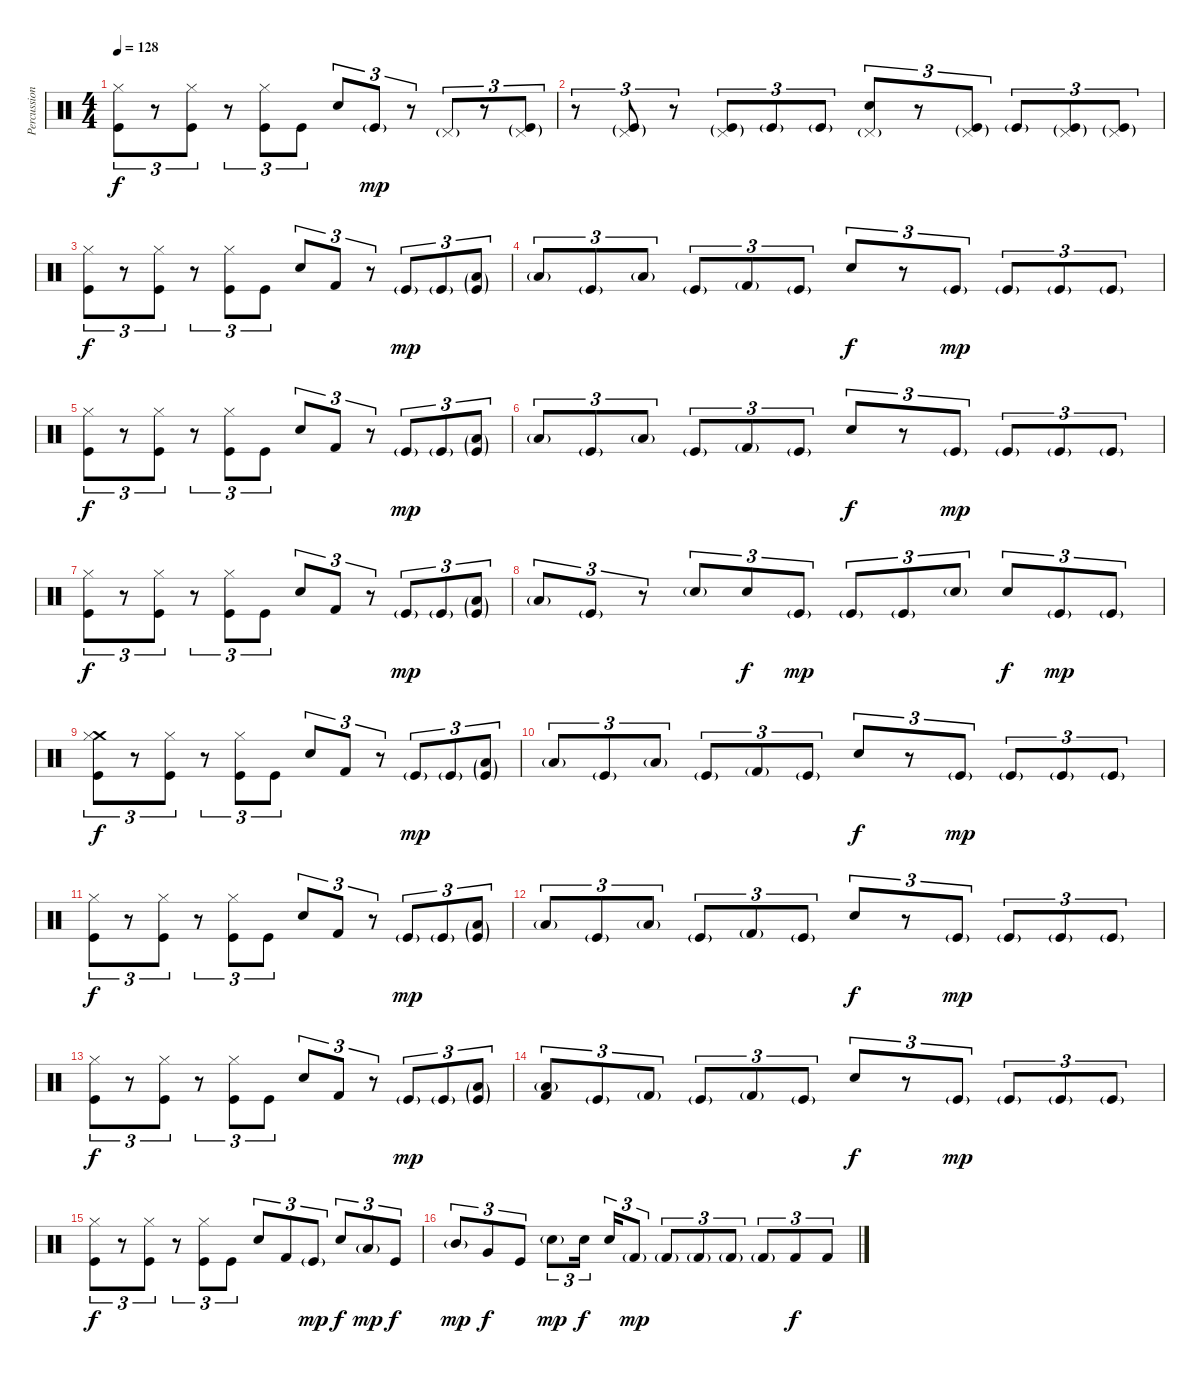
\track ("Percussions" "Percussion") {instrument percussion}
\staff {score}
\articulation defaults
\ts (4 4)
\tempo 128
\clef neutral
\ks c
("Hi-Hat (closed)" "Kick (hit)").8{tu (3 2) dy f} r.8{tu (3 2)} ("Hi-Hat (closed)" "Kick (hit)").8{tu (3 2)} r.8{tu (3 2)} ("Hi-Hat (closed)" "Kick (hit)").8{tu (3 2)} "Kick (hit)".8{tu (3 2)} "Electric Snare (hit)".8{tu (3 2)} "Kick (hit)"{g}.8{tu (3 2) dy mp} r.8{tu (3 2)} "Pedal Hi-Hat (hit)"{g}.8{tu (3 2)} r.8{tu (3 2)} ("Pedal Hi-Hat (hit)"{g} "Kick (hit)"{g}).8{tu (3 2)} |
r.8{tu (3 2)} ("Pedal Hi-Hat (hit)"{g} "Kick (hit)"{g}).8{tu (3 2)} r.8{tu (3 2)} ("Pedal Hi-Hat (hit)"{g} "Kick (hit)"{g}).8{tu (3 2)} "Kick (hit)"{g}.8{tu (3 2)} "Kick (hit)"{g}.8{tu (3 2)} ("Pedal Hi-Hat (hit)"{g} "Electric Snare (hit)").8{tu (3 2)} r.8{tu (3 2)} ("Pedal Hi-Hat (hit)"{g} "Kick (hit)"{g}).8{tu (3 2)} "Kick (hit)"{g}.8{tu (3 2)} ("Pedal Hi-Hat (hit)"{g} "Kick (hit)"{g}).8{tu (3 2)} ("Pedal Hi-Hat (hit)"{g} "Kick (hit)"{g}).8{tu (3 2)} |
("Hi-Hat (closed)" "Kick (hit)").8{tu (3 2) dy f} r.8{tu (3 2)} ("Hi-Hat (closed)" "Kick (hit)").8{tu (3 2)} r.8{tu (3 2)} ("Hi-Hat (closed)" "Kick (hit)").8{tu (3 2)} "Kick (hit)".8{tu (3 2)} "Electric Snare (hit)".8{tu (3 2)} "Kick (hit) 2".8{tu (3 2)} r.8{tu (3 2)} "Kick (hit)"{g}.8{tu (3 2) dy mp} "Kick (hit)"{g}.8{tu (3 2)} ("Low Floor Tom (hit)"{g} "Kick (hit)"{g}).8{tu (3 2)} |
"Low Floor Tom (hit)"{g}.8{tu (3 2)} "Kick (hit)"{g}.8{tu (3 2)} "Low Floor Tom (hit)"{g}.8{tu (3 2)} "Kick (hit)"{g}.8{tu (3 2)} "Kick (hit) 2"{g}.8{tu (3 2)} "Kick (hit)"{g}.8{tu (3 2)} "Electric Snare (hit)".8{tu (3 2) dy f} r.8{tu (3 2)} "Kick (hit)"{g}.8{tu (3 2) dy mp} "Kick (hit)"{g}.8{tu (3 2)} "Kick (hit)"{g}.8{tu (3 2)} "Kick (hit)"{g}.8{tu (3 2)} |
("Hi-Hat (closed)" "Kick (hit)").8{tu (3 2) dy f} r.8{tu (3 2)} ("Hi-Hat (closed)" "Kick (hit)").8{tu (3 2)} r.8{tu (3 2)} ("Hi-Hat (closed)" "Kick (hit)").8{tu (3 2)} "Kick (hit)".8{tu (3 2)} "Electric Snare (hit)".8{tu (3 2)} "Kick (hit) 2".8{tu (3 2)} r.8{tu (3 2)} "Kick (hit)"{g}.8{tu (3 2) dy mp} "Kick (hit)"{g}.8{tu (3 2)} ("Low Floor Tom (hit)"{g} "Kick (hit)"{g}).8{tu (3 2)} |
"Low Floor Tom (hit)"{g}.8{tu (3 2)} "Kick (hit)"{g}.8{tu (3 2)} "Low Floor Tom (hit)"{g}.8{tu (3 2)} "Kick (hit)"{g}.8{tu (3 2)} "Kick (hit) 2"{g}.8{tu (3 2)} "Kick (hit)"{g}.8{tu (3 2)} "Electric Snare (hit)".8{tu (3 2) dy f} r.8{tu (3 2)} "Kick (hit)"{g}.8{tu (3 2) dy mp} "Kick (hit)"{g}.8{tu (3 2)} "Kick (hit)"{g}.8{tu (3 2)} "Kick (hit)"{g}.8{tu (3 2)} |
("Hi-Hat (closed)" "Kick (hit)").8{tu (3 2) dy f} r.8{tu (3 2)} ("Hi-Hat (closed)" "Kick (hit)").8{tu (3 2)} r.8{tu (3 2)} ("Hi-Hat (closed)" "Kick (hit)").8{tu (3 2)} "Kick (hit)".8{tu (3 2)} "Electric Snare (hit)".8{tu (3 2)} "Kick (hit) 2".8{tu (3 2)} r.8{tu (3 2)} "Kick (hit)"{g}.8{tu (3 2) dy mp} "Kick (hit)"{g}.8{tu (3 2)} ("Low Floor Tom (hit)"{g} "Kick (hit)"{g}).8{tu (3 2)} |
"Low Floor Tom (hit)"{g}.8{tu (3 2)} "Kick (hit)"{g}.8{tu (3 2)} r.8{tu (3 2)} "Electric Snare (hit)"{g}.8{tu (3 2)} "Electric Snare (hit)".8{tu (3 2) dy f} "Kick (hit)"{g}.8{tu (3 2) dy mp} "Kick (hit)"{g}.8{tu (3 2)} "Kick (hit)"{g}.8{tu (3 2)} "Electric Snare (hit)"{g}.8{tu (3 2)} "Electric Snare (hit)".8{tu (3 2) dy f} "Kick (hit)"{g}.8{tu (3 2) dy mp} "Kick (hit)"{g}.8{tu (3 2)} |
("Crash medium (hit)" "Hi-Hat (closed)" "Kick (hit)").8{tu (3 2) dy f} r.8{tu (3 2)} ("Hi-Hat (closed)" "Kick (hit)").8{tu (3 2)} r.8{tu (3 2)} ("Hi-Hat (closed)" "Kick (hit)").8{tu (3 2)} "Kick (hit)".8{tu (3 2)} "Electric Snare (hit)".8{tu (3 2)} "Kick (hit) 2".8{tu (3 2)} r.8{tu (3 2)} "Kick (hit)"{g}.8{tu (3 2) dy mp} "Kick (hit)"{g}.8{tu (3 2)} ("Low Floor Tom (hit)"{g} "Kick (hit)"{g}).8{tu (3 2)} |
"Low Floor Tom (hit)"{g}.8{tu (3 2)} "Kick (hit)"{g}.8{tu (3 2)} "Low Floor Tom (hit)"{g}.8{tu (3 2)} "Kick (hit)"{g}.8{tu (3 2)} "Kick (hit) 2"{g}.8{tu (3 2)} "Kick (hit)"{g}.8{tu (3 2)} "Electric Snare (hit)".8{tu (3 2) dy f} r.8{tu (3 2)} "Kick (hit)"{g}.8{tu (3 2) dy mp} "Kick (hit)"{g}.8{tu (3 2)} "Kick (hit)"{g}.8{tu (3 2)} "Kick (hit)"{g}.8{tu (3 2)} |
("Hi-Hat (closed)" "Kick (hit)").8{tu (3 2) dy f} r.8{tu (3 2)} ("Hi-Hat (closed)" "Kick (hit)").8{tu (3 2)} r.8{tu (3 2)} ("Hi-Hat (closed)" "Kick (hit)").8{tu (3 2)} "Kick (hit)".8{tu (3 2)} "Electric Snare (hit)".8{tu (3 2)} "Kick (hit) 2".8{tu (3 2)} r.8{tu (3 2)} "Kick (hit)"{g}.8{tu (3 2) dy mp} "Kick (hit)"{g}.8{tu (3 2)} ("Low Floor Tom (hit)"{g} "Kick (hit)"{g}).8{tu (3 2)} |
"Low Floor Tom (hit)"{g}.8{tu (3 2)} "Kick (hit)"{g}.8{tu (3 2)} "Low Floor Tom (hit)"{g}.8{tu (3 2)} "Kick (hit)"{g}.8{tu (3 2)} "Kick (hit) 2"{g}.8{tu (3 2)} "Kick (hit)"{g}.8{tu (3 2)} "Electric Snare (hit)".8{tu (3 2) dy f} r.8{tu (3 2)} "Kick (hit)"{g}.8{tu (3 2) dy mp} "Kick (hit)"{g}.8{tu (3 2)} "Kick (hit)"{g}.8{tu (3 2)} "Kick (hit)"{g}.8{tu (3 2)} |
("Hi-Hat (closed)" "Kick (hit)").8{tu (3 2) dy f} r.8{tu (3 2)} ("Hi-Hat (closed)" "Kick (hit)").8{tu (3 2)} r.8{tu (3 2)} ("Hi-Hat (closed)" "Kick (hit)").8{tu (3 2)} "Kick (hit)".8{tu (3 2)} "Electric Snare (hit)".8{tu (3 2)} "Kick (hit) 2".8{tu (3 2)} r.8{tu (3 2)} "Kick (hit)"{g}.8{tu (3 2) dy mp} "Kick (hit)"{g}.8{tu (3 2)} ("Low Floor Tom (hit)"{g} "Kick (hit)"{g}).8{tu (3 2)} |
("Low Floor Tom (hit)"{g} "Kick (hit) 2").8{tu (3 2)} "Kick (hit)"{g}.8{tu (3 2)} "Kick (hit) 2"{g}.8{tu (3 2)} "Kick (hit)"{g}.8{tu (3 2)} "Kick (hit) 2"{g}.8{tu (3 2)} "Kick (hit)"{g}.8{tu (3 2)} "Electric Snare (hit)".8{tu (3 2) dy f} r.8{tu (3 2)} "Kick (hit)"{g}.8{tu (3 2) dy mp} "Kick (hit)"{g}.8{tu (3 2)} "Kick (hit)"{g}.8{tu (3 2)} "Kick (hit)"{g}.8{tu (3 2)} |
("Hi-Hat (closed)" "Kick (hit)").8{tu (3 2) dy f} r.8{tu (3 2)} ("Hi-Hat (closed)" "Kick (hit)").8{tu (3 2)} r.8{tu (3 2)} ("Hi-Hat (closed)" "Kick (hit)").8{tu (3 2)} "Kick (hit)".8{tu (3 2)} "Electric Snare (hit)".8{tu (3 2)} "Kick (hit) 2".8{tu (3 2)} "Kick (hit)"{g}.8{tu (3 2) dy mp} "Electric Snare (hit)".8{tu (3 2) dy f} "Low Tom (hit)"{g}.8{tu (3 2) dy mp} "Kick (hit)".8{tu (3 2) dy f} |
"Mid Tom (hit)"{g}.8{tu (3 2) dy mp} "Very Low Tom (hit)".8{tu (3 2) dy f} "Kick (hit)".8{tu (3 2)} "Electric Snare (hit)"{g}.8{tu (3 2) dy mp} "Electric Snare (hit)".16{tu (3 2) dy f beam splitsecondary} "Electric Snare (hit)".16{tu (3 2)} "Kick (hit) 2"{g}.8{tu (3 2) dy mp} "Kick (hit) 2"{g}.8{tu (3 2)} "Kick (hit) 2"{g}.8{tu (3 2)} "Kick (hit) 2"{g}.8{tu (3 2)} "Kick (hit) 2"{g}.8{tu (3 2)} "Kick (hit) 2".8{tu (3 2) dy f} "Kick (hit) 2".8{tu (3 2)}
